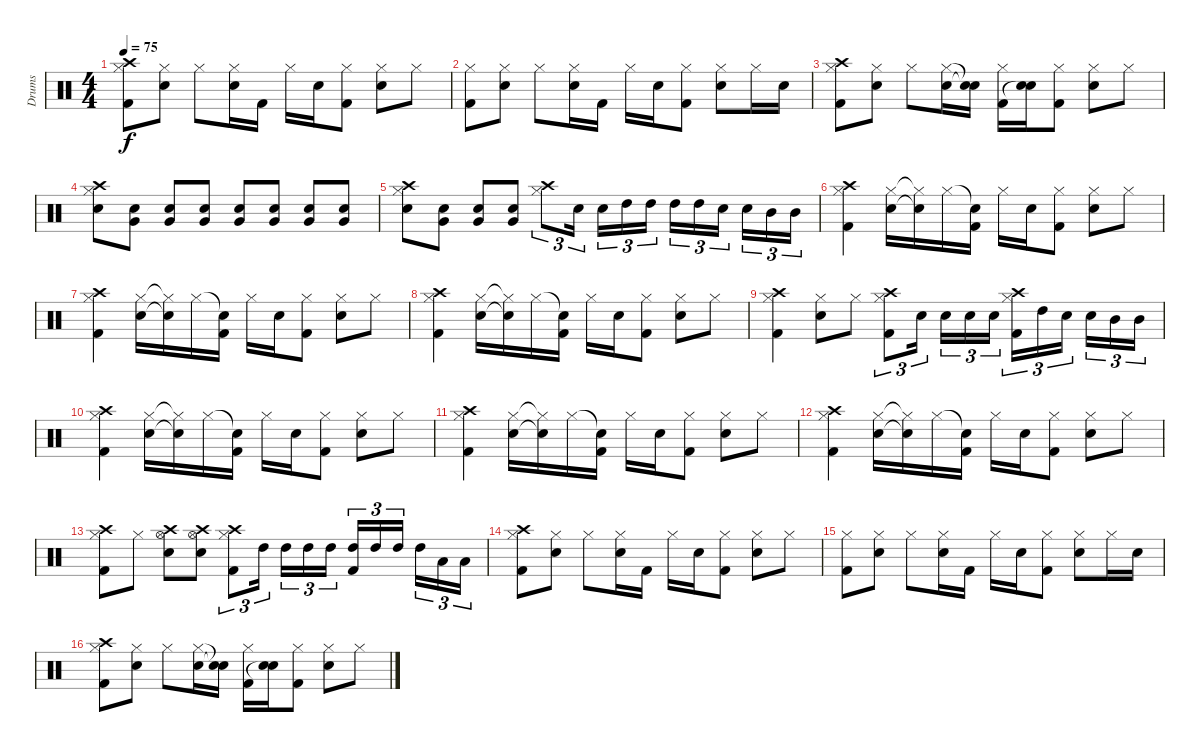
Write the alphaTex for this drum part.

\track ("Drums" "Drums") {instrument percussion}
\staff {score}
\articulation defaults
\ts (4 4)
\tempo 75
\clef neutral
\ks c
("Crash high (hit)" "Hi-Hat (closed)" "Kick (hit) 2").8{dy f} ("Hi-Hat (closed)" "Electric Snare (hit)").8 "Hi-Hat (closed)".8 ("Hi-Hat (closed)" "Electric Snare (hit)").16 "Kick (hit) 2".16 "Hi-Hat (closed)".16 "Electric Snare (hit)".16 ("Hi-Hat (closed)" "Kick (hit) 2").8 ("Hi-Hat (closed)" "Electric Snare (hit)").8 "Hi-Hat (closed)".8 |
("Hi-Hat (closed)" "Kick (hit) 2").8 ("Hi-Hat (closed)" "Electric Snare (hit)").8 "Hi-Hat (closed)".8 ("Hi-Hat (closed)" "Electric Snare (hit)").16 "Kick (hit) 2".16 "Hi-Hat (closed)".16 "Electric Snare (hit)".16 ("Hi-Hat (closed)" "Kick (hit) 2").8 ("Hi-Hat (closed)" "Electric Snare (hit)").8 "Hi-Hat (closed)".16 "Electric Snare (hit)".16 |
("Crash high (hit)" "Hi-Hat (closed)" "Kick (hit) 2").8 ("Hi-Hat (closed)" "Electric Snare (hit)").8 "Hi-Hat (closed)".8 ("Hi-Hat (closed)" "Electric Snare (hit)").16 ("Snare (hit)"{t} "Snare (hit)"{t}).16 ("Hi-Hat (closed)" "Kick (hit) 2").16 ("Electric Snare (hit)" "Snare (hit)"{t}).16 ("Hi-Hat (closed)" "Kick (hit) 2").8 ("Hi-Hat (closed)" "Electric Snare (hit)").8 "Hi-Hat (closed)".8 |
("Crash high (hit)" "Electric Snare (hit)" "Hi-Hat (closed)").8 ("Electric Snare (hit)" "Very Low Tom (hit)").8 ("Electric Snare (hit)" "Very Low Tom (hit)").8 ("Electric Snare (hit)" "Very Low Tom (hit)").8 ("Electric Snare (hit)" "Very Low Tom (hit)").8 ("Electric Snare (hit)" "Very Low Tom (hit)").8 ("Electric Snare (hit)" "Very Low Tom (hit)").8 ("Electric Snare (hit)" "Very Low Tom (hit)").8 |
("Crash high (hit)" "Electric Snare (hit)" "Hi-Hat (closed)").8 ("Electric Snare (hit)" "Very Low Tom (hit)").8 ("Electric Snare (hit)" "Very Low Tom (hit)").8 ("Electric Snare (hit)" "Very Low Tom (hit)").8 ("Crash high (hit)" "Hi-Hat (closed)").8{tu (3 2)} "Electric Snare (hit)".16{tu (3 2)} "Electric Snare (hit)".16{tu (3 2)} "High Tom (hit)".16{tu (3 2)} "High Tom (hit)".16{tu (3 2)} "High Tom (hit)".16{tu (3 2)} "High Tom (hit)".16{tu (3 2)} "Electric Snare (hit)".16{tu (3 2)} "Electric Snare (hit)".16{tu (3 2)} "Mid Tom (hit)".16{tu (3 2)} "Mid Tom (hit)".16{tu (3 2)} |
("Hi-Hat (closed)" "Kick (hit) 2" "Crash high (hit)").4 ("Hi-Hat (closed)" "Electric Snare (hit)").16 ("Hi-Hat (closed)"{t} "Electric Snare (hit)"{t}).16 "Hi-Hat (closed)".16 ("Snare (hit)"{t} "Kick (hit) 2").16 "Hi-Hat (closed)".16 "Electric Snare (hit)".16 ("Hi-Hat (closed)" "Kick (hit) 2").8 ("Electric Snare (hit)" "Hi-Hat (closed)").8 "Hi-Hat (closed)".8 |
("Hi-Hat (closed)" "Kick (hit) 2" "Crash high (hit)").4 ("Hi-Hat (closed)" "Electric Snare (hit)").16 ("Hi-Hat (closed)"{t} "Electric Snare (hit)"{t}).16 "Hi-Hat (closed)".16 ("Snare (hit)"{t} "Kick (hit) 2").16 "Hi-Hat (closed)".16 "Electric Snare (hit)".16 ("Hi-Hat (closed)" "Kick (hit) 2").8 ("Electric Snare (hit)" "Hi-Hat (closed)").8 "Hi-Hat (closed)".8 |
("Hi-Hat (closed)" "Kick (hit) 2" "Crash high (hit)").4 ("Hi-Hat (closed)" "Electric Snare (hit)").16 ("Hi-Hat (closed)"{t} "Electric Snare (hit)"{t}).16 "Hi-Hat (closed)".16 ("Snare (hit)"{t} "Kick (hit) 2").16 "Hi-Hat (closed)".16 "Electric Snare (hit)".16 ("Hi-Hat (closed)" "Kick (hit) 2").8 ("Electric Snare (hit)" "Hi-Hat (closed)").8 "Hi-Hat (closed)".8 |
("Kick (hit) 2" "Crash high (hit)" "Hi-Hat (closed)").4 ("Electric Snare (hit)" "Hi-Hat (closed)").8 "Hi-Hat (closed)".8 ("Kick (hit) 2" "Crash high (hit)" "Hi-Hat (closed)").8{tu (3 2)} "Electric Snare (hit)".16{tu (3 2)} "Electric Snare (hit)".16{tu (3 2)} "Electric Snare (hit)".16{tu (3 2)} "Electric Snare (hit)".16{tu (3 2)} ("Kick (hit) 2" "Crash high (hit)" "Hi-Hat (closed)").16{tu (3 2)} "High Tom (hit)".16{tu (3 2)} "Electric Snare (hit)".16{tu (3 2)} "Electric Snare (hit)".16{tu (3 2)} "Mid Tom (hit)".16{tu (3 2)} "Mid Tom (hit)".16{tu (3 2)} |
("Hi-Hat (closed)" "Kick (hit) 2" "Crash high (hit)").4 ("Hi-Hat (closed)" "Electric Snare (hit)").16 ("Hi-Hat (closed)"{t} "Electric Snare (hit)"{t}).16 "Hi-Hat (closed)".16 ("Snare (hit)"{t} "Kick (hit) 2").16 "Hi-Hat (closed)".16 "Electric Snare (hit)".16 ("Hi-Hat (closed)" "Kick (hit) 2").8 ("Electric Snare (hit)" "Hi-Hat (closed)").8 "Hi-Hat (closed)".8 |
("Hi-Hat (closed)" "Kick (hit) 2" "Crash high (hit)").4 ("Hi-Hat (closed)" "Electric Snare (hit)").16 ("Hi-Hat (closed)"{t} "Electric Snare (hit)"{t}).16 "Hi-Hat (closed)".16 ("Snare (hit)"{t} "Kick (hit) 2").16 "Hi-Hat (closed)".16 "Electric Snare (hit)".16 ("Hi-Hat (closed)" "Kick (hit) 2").8 ("Electric Snare (hit)" "Hi-Hat (closed)").8 "Hi-Hat (closed)".8 |
("Hi-Hat (closed)" "Kick (hit) 2" "Crash high (hit)").4 ("Hi-Hat (closed)" "Electric Snare (hit)").16 ("Hi-Hat (closed)"{t} "Electric Snare (hit)"{t}).16 "Hi-Hat (closed)".16 ("Snare (hit)"{t} "Kick (hit) 2").16 "Hi-Hat (closed)".16 "Electric Snare (hit)".16 ("Hi-Hat (closed)" "Kick (hit) 2").8 ("Electric Snare (hit)" "Hi-Hat (closed)").8 "Hi-Hat (closed)".8 |
("Crash high (hit)" "Kick (hit) 2" "Hi-Hat (closed)").8 "Hi-Hat (closed)".8 ("Crash high (hit)" "Hi-Hat (open)" "Electric Snare (hit)").8 ("Crash high (hit)" "Hi-Hat (open)" "Electric Snare (hit)").8 ("Crash high (hit)" "Kick (hit) 2" "Hi-Hat (closed)").8{tu (3 2)} "High Tom (hit)".16{tu (3 2)} "High Tom (hit)".16{tu (3 2)} "High Tom (hit)".16{tu (3 2)} "High Tom (hit)".16{tu (3 2)} ("High Tom (hit)" "Kick (hit) 2").16{tu (3 2)} "High Tom (hit)".16{tu (3 2)} "High Tom (hit)".16{tu (3 2)} "High Tom (hit)".16{tu (3 2)} "Low Tom (hit)".16{tu (3 2)} "Low Tom (hit)".16{tu (3 2)} |
("Crash high (hit)" "Hi-Hat (closed)" "Kick (hit) 2").8 ("Hi-Hat (closed)" "Electric Snare (hit)").8 "Hi-Hat (closed)".8 ("Hi-Hat (closed)" "Electric Snare (hit)").16 "Kick (hit) 2".16 "Hi-Hat (closed)".16 "Electric Snare (hit)".16 ("Hi-Hat (closed)" "Kick (hit) 2").8 ("Hi-Hat (closed)" "Electric Snare (hit)").8 "Hi-Hat (closed)".8 |
("Hi-Hat (closed)" "Kick (hit) 2").8 ("Hi-Hat (closed)" "Electric Snare (hit)").8 "Hi-Hat (closed)".8 ("Hi-Hat (closed)" "Electric Snare (hit)").16 "Kick (hit) 2".16 "Hi-Hat (closed)".16 "Electric Snare (hit)".16 ("Hi-Hat (closed)" "Kick (hit) 2").8 ("Hi-Hat (closed)" "Electric Snare (hit)").8 "Hi-Hat (closed)".16 "Electric Snare (hit)".16 |
("Crash high (hit)" "Hi-Hat (closed)" "Kick (hit) 2").8 ("Hi-Hat (closed)" "Electric Snare (hit)").8 "Hi-Hat (closed)".8 ("Hi-Hat (closed)" "Electric Snare (hit)").16 ("Snare (hit)"{t} "Snare (hit)"{t}).16 ("Hi-Hat (closed)" "Kick (hit) 2").16 ("Electric Snare (hit)" "Snare (hit)"{t}).16 ("Hi-Hat (closed)" "Kick (hit) 2").8 ("Hi-Hat (closed)" "Electric Snare (hit)").8 "Hi-Hat (closed)".8
